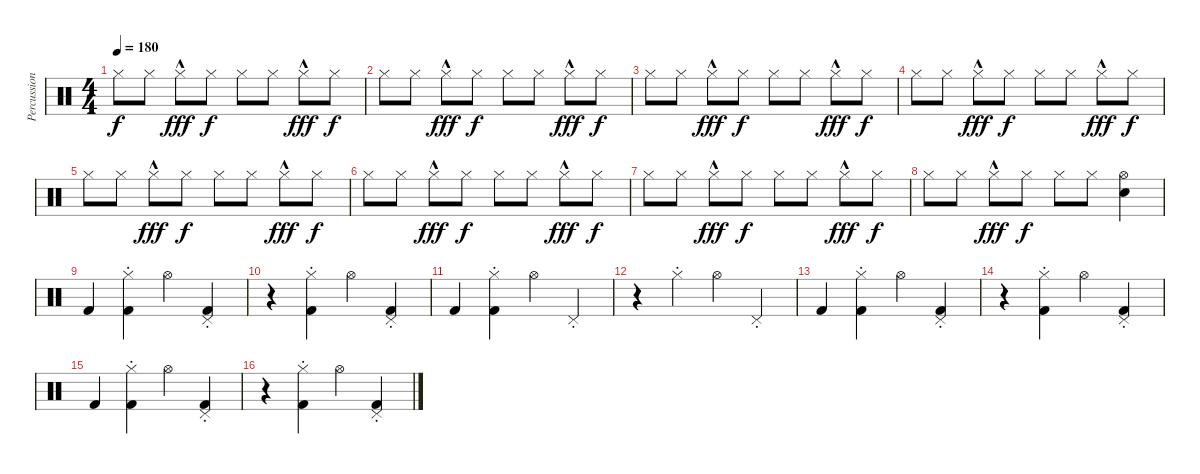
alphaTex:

\track ("Percussion" "Percussion") {instrument percussion}
\staff {score}
\articulation defaults
\ts (4 4)
\tempo 180
\clef neutral
\ks c "Hi-Hat (closed)".8{dy f} "Hi-Hat (closed)".8 "Hi-Hat (closed)"{hac}.8{dy fff} "Hi-Hat (closed)".8{dy f} "Hi-Hat (closed)".8 "Hi-Hat (closed)".8 "Hi-Hat (closed)"{hac}.8{dy fff} "Hi-Hat (closed)".8{dy f}
|
"Hi-Hat (closed)".8 "Hi-Hat (closed)".8 "Hi-Hat (closed)"{hac}.8{dy fff} "Hi-Hat (closed)".8{dy f} "Hi-Hat (closed)".8 "Hi-Hat (closed)".8 "Hi-Hat (closed)"{hac}.8{dy fff} "Hi-Hat (closed)".8{dy f} |
"Hi-Hat (closed)".8 "Hi-Hat (closed)".8 "Hi-Hat (closed)"{hac}.8{dy fff} "Hi-Hat (closed)".8{dy f} "Hi-Hat (closed)".8 "Hi-Hat (closed)".8 "Hi-Hat (closed)"{hac}.8{dy fff} "Hi-Hat (closed)".8{dy f} |
"Hi-Hat (closed)".8 "Hi-Hat (closed)".8 "Hi-Hat (closed)"{hac}.8{dy fff} "Hi-Hat (closed)".8{dy f} "Hi-Hat (closed)".8 "Hi-Hat (closed)".8 "Hi-Hat (closed)"{hac}.8{dy fff} "Hi-Hat (closed)".8{dy f} |
"Hi-Hat (closed)".8 "Hi-Hat (closed)".8 "Hi-Hat (closed)"{hac}.8{dy fff} "Hi-Hat (closed)".8{dy f} "Hi-Hat (closed)".8 "Hi-Hat (closed)".8 "Hi-Hat (closed)"{hac}.8{dy fff} "Hi-Hat (closed)".8{dy f} |
"Hi-Hat (closed)".8 "Hi-Hat (closed)".8 "Hi-Hat (closed)"{hac}.8{dy fff} "Hi-Hat (closed)".8{dy f} "Hi-Hat (closed)".8 "Hi-Hat (closed)".8 "Hi-Hat (closed)"{hac}.8{dy fff} "Hi-Hat (closed)".8{dy f} |
"Hi-Hat (closed)".8 "Hi-Hat (closed)".8 "Hi-Hat (closed)"{hac}.8{dy fff} "Hi-Hat (closed)".8{dy f} "Hi-Hat (closed)".8 "Hi-Hat (closed)".8 "Hi-Hat (closed)"{hac}.8{dy fff} "Hi-Hat (closed)".8{dy f} |
"Hi-Hat (closed)".8 "Hi-Hat (closed)".8 "Hi-Hat (closed)"{hac}.8{dy fff} "Hi-Hat (closed)".8{dy f} "Hi-Hat (closed)".8 "Hi-Hat (closed)".8 ("Hi-Hat (open)" "Electric Snare (hit)").4 |
"Kick (hit) 2".4 ("Hi-Hat (closed)"{st} "Kick (hit) 2").4 "Hi-Hat (open)".4 ("Pedal Hi-Hat (hit)"{st} "Kick (hit) 2").4 |
r.4 ("Hi-Hat (closed)"{st} "Kick (hit) 2").4 "Hi-Hat (open)".4 ("Pedal Hi-Hat (hit)"{st} "Kick (hit) 2").4 |
"Kick (hit) 2".4 ("Hi-Hat (closed)"{st} "Kick (hit) 2").4 "Hi-Hat (open)".4 "Pedal Hi-Hat (hit)"{st}.4 |
r.4 "Hi-Hat (closed)"{st}.4 "Hi-Hat (open)".4 "Pedal Hi-Hat (hit)"{st}.4 |
"Kick (hit) 2".4 ("Hi-Hat (closed)"{st} "Kick (hit) 2").4 "Hi-Hat (open)".4 ("Pedal Hi-Hat (hit)"{st} "Kick (hit) 2").4 |
r.4 ("Hi-Hat (closed)"{st} "Kick (hit) 2").4 "Hi-Hat (open)".4 ("Pedal Hi-Hat (hit)"{st} "Kick (hit) 2").4 |
"Kick (hit) 2".4 ("Hi-Hat (closed)"{st} "Kick (hit) 2").4 "Hi-Hat (open)".4 ("Pedal Hi-Hat (hit)"{st} "Kick (hit) 2").4 |
r.4 ("Hi-Hat (closed)"{st} "Kick (hit) 2").4 "Hi-Hat (open)".4 ("Pedal Hi-Hat (hit)"{st} "Kick (hit) 2").4
